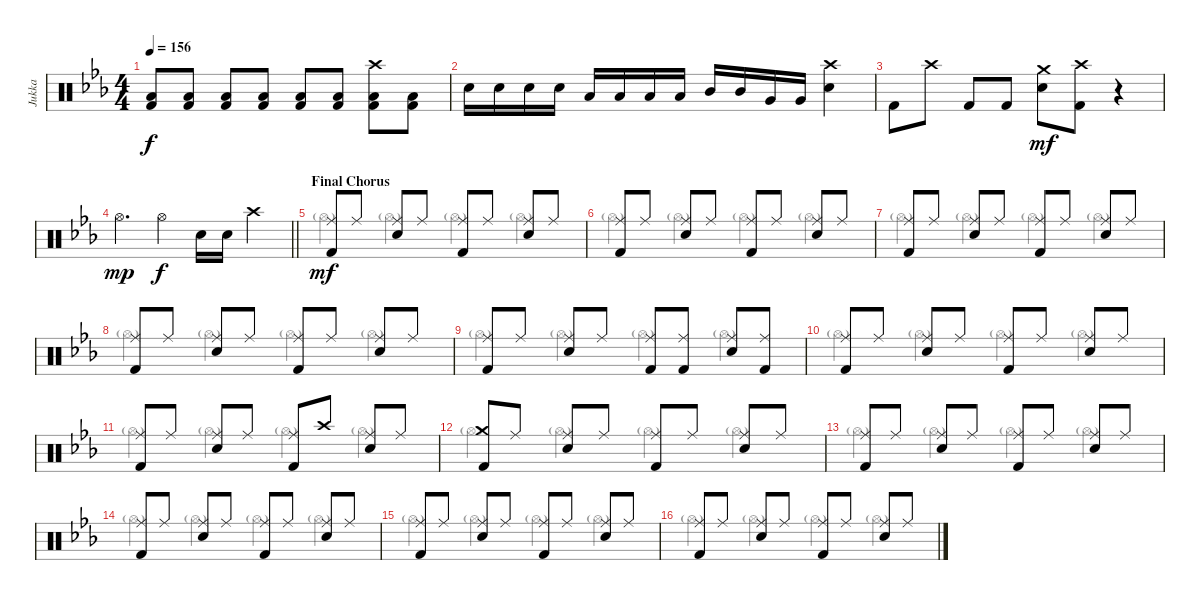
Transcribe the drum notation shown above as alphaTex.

\track ("Jukka" "Jukka") {instrument percussion}
\staff {score}
\articulation defaults
\voice
\ts (4 4)
\tempo 156
\clef neutral
\ks cminor
("Low Floor Tom (hit)" "Kick (hit) 2").8{dy f} ("Low Floor Tom (hit)" "Kick (hit) 2").8 ("Low Floor Tom (hit)" "Kick (hit) 2").8 ("Low Floor Tom (hit)" "Kick (hit) 2").8 ("Low Floor Tom (hit)" "Kick (hit) 2").8 ("Low Floor Tom (hit)" "Kick (hit) 2").8 ("Crash high (hit)" "Low Floor Tom (hit)" "Kick (hit) 2").8 ("Low Floor Tom (hit)" "Kick (hit) 2").8 |
"Electric Snare (hit)".16 "Electric Snare (hit)".16 "Electric Snare (hit)".16 "Electric Snare (hit)".16 "Low Floor Tom (hit)".16 "Low Floor Tom (hit)".16 "Low Tom (hit)".16 "Low Tom (hit)".16 "Mid Tom (hit)".16 "Mid Tom (hit)".16 "Very Low Tom (hit)".16 "Very Low Tom (hit)".16 ("Crash high (hit)" "Electric Snare (hit)").4 |
"Kick (hit) 2".8 "Crash high (hit)".8 "Kick (hit) 2".8 "Kick (hit) 2".8 ("Crash medium (hit)" "Electric Snare (hit)").8{dy mf} ("Crash high (hit)" "Kick (hit) 2").8 r.4 |
\barLineRight lightlight "Hi-Hat (open)".4{d dy mp} "Hi-Hat (open)".4{dy f} "Electric Snare (hit)".16 "Electric Snare (hit)".16 "Crash high (hit)".4
|
\section ("" "Final Chorus")
("Ride (middle)" "Kick (hit) 2").8{dy mf} "Ride (middle)".8 ("Ride (middle)" "Electric Snare (hit)").8 "Ride (middle)".8 ("Ride (middle)" "Kick (hit) 2").8 "Ride (middle)".8 ("Ride (middle)" "Electric Snare (hit)").8 "Ride (middle)".8 |
("Ride (middle)" "Kick (hit) 2").8 "Ride (middle)".8 ("Ride (middle)" "Electric Snare (hit)").8 "Ride (middle)".8 ("Ride (middle)" "Kick (hit) 2").8 "Ride (middle)".8 ("Ride (middle)" "Electric Snare (hit)").8 "Ride (middle)".8 |
("Ride (middle)" "Kick (hit) 2").8 "Ride (middle)".8 ("Ride (middle)" "Electric Snare (hit)").8 "Ride (middle)".8 ("Ride (middle)" "Kick (hit) 2").8 "Ride (middle)".8 ("Ride (middle)" "Electric Snare (hit)").8 "Ride (middle)".8 |
("Ride (middle)" "Kick (hit) 2").8 "Ride (middle)".8 ("Ride (middle)" "Electric Snare (hit)").8 "Ride (middle)".8 ("Ride (middle)" "Kick (hit) 2").8 "Ride (middle)".8 ("Ride (middle)" "Electric Snare (hit)").8 "Ride (middle)".8 |
("Ride (middle)" "Kick (hit) 2").8 "Ride (middle)".8 ("Ride (middle)" "Electric Snare (hit)").8 "Ride (middle)".8 ("Ride (middle)" "Kick (hit) 2").8 ("Ride (middle)" "Kick (hit) 2").8 ("Ride (middle)" "Electric Snare (hit)").8 ("Ride (middle)" "Kick (hit) 2").8 |
("Ride (middle)" "Kick (hit) 2").8 "Ride (middle)".8 ("Ride (middle)" "Electric Snare (hit)").8 "Ride (middle)".8 ("Ride (middle)" "Kick (hit) 2").8 "Ride (middle)".8 ("Ride (middle)" "Electric Snare (hit)").8 "Ride (middle)".8 |
("Ride (middle)" "Kick (hit) 2").8 "Ride (middle)".8 ("Ride (middle)" "Electric Snare (hit)").8 "Ride (middle)".8 ("Ride (middle)" "Kick (hit) 2").8 "Crash high (hit)".8 ("Ride (middle)" "Electric Snare (hit)").8 "Ride (middle)".8 |
("Crash medium (hit)" "Kick (hit) 2").8 "Ride (middle)".8 ("Ride (middle)" "Electric Snare (hit)").8 "Ride (middle)".8 ("Ride (middle)" "Kick (hit) 2").8 "Ride (middle)".8 ("Ride (middle)" "Electric Snare (hit)").8 "Ride (middle)".8 |
("Ride (middle)" "Kick (hit) 2").8 "Ride (middle)".8 ("Ride (middle)" "Electric Snare (hit)").8 "Ride (middle)".8 ("Ride (middle)" "Kick (hit) 2").8 "Ride (middle)".8 ("Ride (middle)" "Electric Snare (hit)").8 "Ride (middle)".8 |
("Ride (middle)" "Kick (hit) 2").8 "Ride (middle)".8 ("Ride (middle)" "Electric Snare (hit)").8 "Ride (middle)".8 ("Ride (middle)" "Kick (hit) 2").8 "Ride (middle)".8 ("Ride (middle)" "Electric Snare (hit)").8 "Ride (middle)".8 |
("Ride (middle)" "Kick (hit) 2").8 "Ride (middle)".8 ("Ride (middle)" "Electric Snare (hit)").8 "Ride (middle)".8 ("Ride (middle)" "Kick (hit) 2").8 "Ride (middle)".8 ("Ride (middle)" "Electric Snare (hit)").8 "Ride (middle)".8 |
("Ride (middle)" "Kick (hit) 2").8 "Ride (middle)".8 ("Ride (middle)" "Electric Snare (hit)").8 "Ride (middle)".8 ("Ride (middle)" "Kick (hit) 2").8 "Ride (middle)".8 ("Ride (middle)" "Electric Snare (hit)").8 "Ride (middle)".8
\voice
\clef neutral
\ottava regular
\simile none
\ks cminor
|
|
|
\barLineRight lightlight
|
"Hi-Hat (open)"{g}.4 "Hi-Hat (open)"{g}.4 "Hi-Hat (open)"{g}.4 "Hi-Hat (open)"{g}.4 |
"Hi-Hat (open)"{g}.4 "Hi-Hat (open)"{g}.4 "Hi-Hat (open)"{g}.4 "Hi-Hat (open)"{g}.4 |
"Hi-Hat (open)"{g}.4 "Hi-Hat (open)"{g}.4 "Hi-Hat (open)"{g}.4 "Hi-Hat (open)"{g}.4 |
"Hi-Hat (open)"{g}.4 "Hi-Hat (open)"{g}.4 "Hi-Hat (open)"{g}.4 "Hi-Hat (open)"{g}.4 |
"Hi-Hat (open)"{g}.4 "Hi-Hat (open)"{g}.4 "Hi-Hat (open)"{g}.4 "Hi-Hat (open)"{g}.4 |
"Hi-Hat (open)"{g}.4 "Hi-Hat (open)"{g}.4 "Hi-Hat (open)"{g}.4 "Hi-Hat (open)"{g}.4 |
"Hi-Hat (open)"{g}.4 "Hi-Hat (open)"{g}.4 "Hi-Hat (open)"{g}.4 "Hi-Hat (open)"{g}.4 |
"Hi-Hat (open)"{g}.4 "Hi-Hat (open)"{g}.4 "Hi-Hat (open)"{g}.4 "Hi-Hat (open)"{g}.4 |
"Hi-Hat (open)"{g}.4 "Hi-Hat (open)"{g}.4 "Hi-Hat (open)"{g}.4 "Hi-Hat (open)"{g}.4 |
"Hi-Hat (open)"{g}.4 "Hi-Hat (open)"{g}.4 "Hi-Hat (open)"{g}.4 "Hi-Hat (open)"{g}.4 |
"Hi-Hat (open)"{g}.4 "Hi-Hat (open)"{g}.4 "Hi-Hat (open)"{g}.4 "Hi-Hat (open)"{g}.4 |
"Hi-Hat (open)"{g}.4 "Hi-Hat (open)"{g}.4 "Hi-Hat (open)"{g}.4 "Hi-Hat (open)"{g}.4
